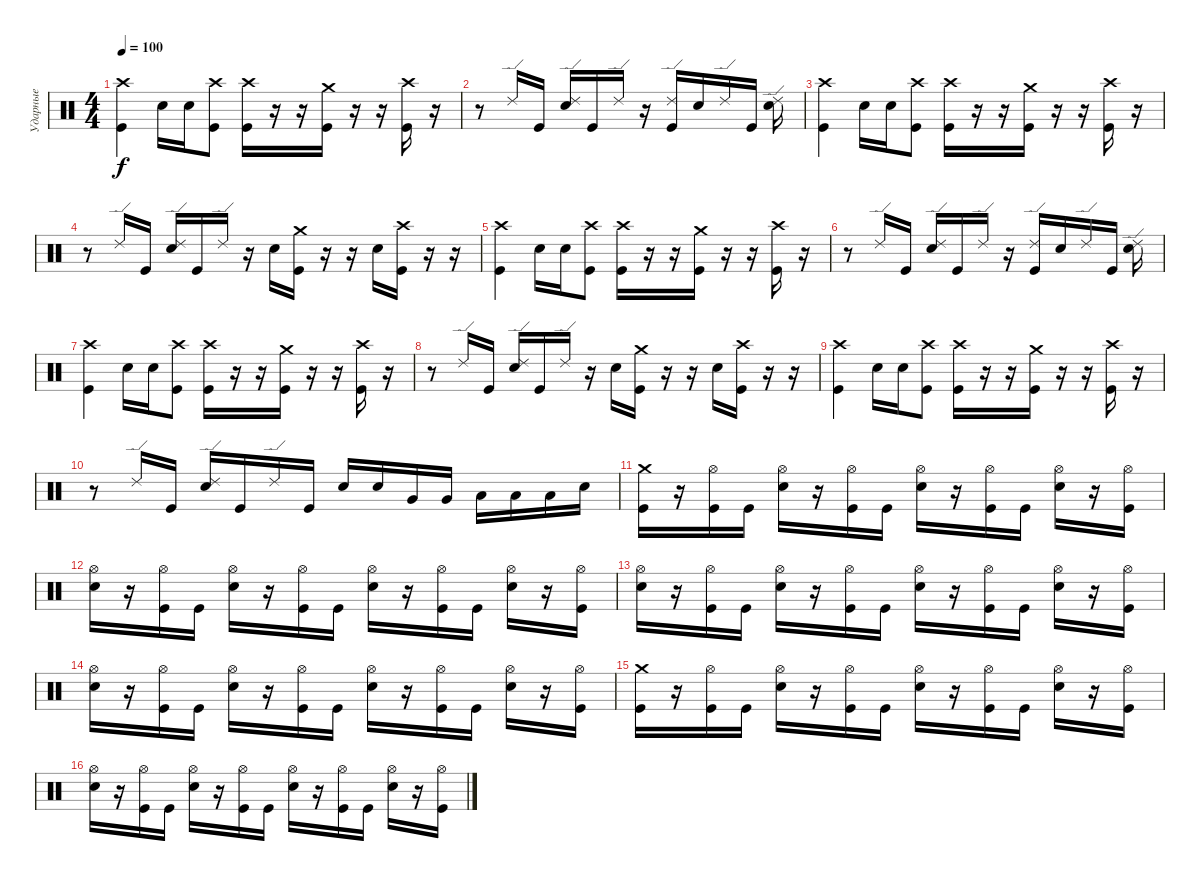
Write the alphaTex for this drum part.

\track ("Ударные" "Ударные") {instrument percussion}
\staff {score}
\articulation defaults
\ts (4 4)
\tempo 100
\clef neutral
\ks c
("Crash high (hit)" "Kick (hit)").4{dy f} "Electric Snare (hit)".16 "Electric Snare (hit)".16 ("Crash high (hit)" "Kick (hit)").8 ("Crash high (hit)" "Kick (hit)").16 r.16 r.16 ("Crash medium (hit)" "Kick (hit)").16 r.16 r.16 ("Crash high (hit)" "Kick (hit)").16 r.16 |
r.8 "Ride (edge) 2".16 "Kick (hit)".16 ("Ride (edge) 2" "Electric Snare (hit)").16 "Kick (hit)".16 "Ride (edge) 2".16 r.16 ("Ride (edge) 2" "Kick (hit)").16 "Electric Snare (hit)".16 "Ride (edge) 2".16 "Kick (hit)".16 ("Ride (edge) 2" "Electric Snare (hit)").16 |
("Crash high (hit)" "Kick (hit)").4 "Electric Snare (hit)".16 "Electric Snare (hit)".16 ("Crash high (hit)" "Kick (hit)").8 ("Crash high (hit)" "Kick (hit)").16 r.16 r.16 ("Crash medium (hit)" "Kick (hit)").16 r.16 r.16 ("Crash high (hit)" "Kick (hit)").16 r.16 |
r.8 "Ride (edge) 2".16 "Kick (hit)".16 ("Ride (edge) 2" "Electric Snare (hit)").16 "Kick (hit)".16 "Ride (edge) 2".16 r.16 "Electric Snare (hit)".16 ("Crash medium (hit)" "Kick (hit)").16 r.16 r.16 "Electric Snare (hit)".16 ("Crash high (hit)" "Kick (hit)").16 r.16 r.16 |
("Crash high (hit)" "Kick (hit)").4 "Electric Snare (hit)".16 "Electric Snare (hit)".16 ("Crash high (hit)" "Kick (hit)").8 ("Crash high (hit)" "Kick (hit)").16 r.16 r.16 ("Crash medium (hit)" "Kick (hit)").16 r.16 r.16 ("Crash high (hit)" "Kick (hit)").16 r.16 |
r.8 "Ride (edge) 2".16 "Kick (hit)".16 ("Ride (edge) 2" "Electric Snare (hit)").16 "Kick (hit)".16 "Ride (edge) 2".16 r.16 ("Ride (edge) 2" "Kick (hit)").16 "Electric Snare (hit)".16 "Ride (edge) 2".16 "Kick (hit)".16 ("Ride (edge) 2" "Electric Snare (hit)").16 |
("Crash high (hit)" "Kick (hit)").4 "Electric Snare (hit)".16 "Electric Snare (hit)".16 ("Crash high (hit)" "Kick (hit)").8 ("Crash high (hit)" "Kick (hit)").16 r.16 r.16 ("Crash medium (hit)" "Kick (hit)").16 r.16 r.16 ("Crash high (hit)" "Kick (hit)").16 r.16 |
r.8 "Ride (edge) 2".16 "Kick (hit)".16 ("Ride (edge) 2" "Electric Snare (hit)").16 "Kick (hit)".16 "Ride (edge) 2".16 r.16 "Electric Snare (hit)".16 ("Crash medium (hit)" "Kick (hit)").16 r.16 r.16 "Electric Snare (hit)".16 ("Crash high (hit)" "Kick (hit)").16 r.16 r.16 |
("Crash high (hit)" "Kick (hit)").4 "Electric Snare (hit)".16 "Electric Snare (hit)".16 ("Crash high (hit)" "Kick (hit)").8 ("Crash high (hit)" "Kick (hit)").16 r.16 r.16 ("Crash medium (hit)" "Kick (hit)").16 r.16 r.16 ("Crash high (hit)" "Kick (hit)").16 r.16 |
r.8 "Ride (edge) 2".16 "Kick (hit)".16 ("Ride (edge) 2" "Electric Snare (hit)").16 "Kick (hit)".16 "Ride (edge) 2".16 "Kick (hit)".16 "Electric Snare (hit)".16 "Electric Snare (hit)".16 "Very Low Tom (hit)".16 "Very Low Tom (hit)".16 "Low Floor Tom (hit)".16 "Low Floor Tom (hit)".16 "Low Floor Tom (hit)".16 "Electric Snare (hit)".16 |
("Crash medium (hit)" "Kick (hit)").16 r.16 ("Hi-Hat (open)" "Kick (hit)").16 "Kick (hit)".16 ("Hi-Hat (open)" "Electric Snare (hit)").16 r.16 ("Hi-Hat (open)" "Kick (hit)").16 "Kick (hit)".16 ("Hi-Hat (open)" "Electric Snare (hit)").16 r.16 ("Hi-Hat (open)" "Kick (hit)").16 "Kick (hit)".16 ("Hi-Hat (open)" "Electric Snare (hit)").16 r.16 ("Hi-Hat (open)" "Kick (hit)").16 |
("Hi-Hat (open)" "Electric Snare (hit)").16 r.16 ("Hi-Hat (open)" "Kick (hit)").16 "Kick (hit)".16 ("Hi-Hat (open)" "Electric Snare (hit)").16 r.16 ("Hi-Hat (open)" "Kick (hit)").16 "Kick (hit)".16 ("Hi-Hat (open)" "Electric Snare (hit)").16 r.16 ("Hi-Hat (open)" "Kick (hit)").16 "Kick (hit)".16 ("Hi-Hat (open)" "Electric Snare (hit)").16 r.16 ("Hi-Hat (open)" "Kick (hit)").16 |
("Hi-Hat (open)" "Electric Snare (hit)").16 r.16 ("Hi-Hat (open)" "Kick (hit)").16 "Kick (hit)".16 ("Hi-Hat (open)" "Electric Snare (hit)").16 r.16 ("Hi-Hat (open)" "Kick (hit)").16 "Kick (hit)".16 ("Hi-Hat (open)" "Electric Snare (hit)").16 r.16 ("Hi-Hat (open)" "Kick (hit)").16 "Kick (hit)".16 ("Hi-Hat (open)" "Electric Snare (hit)").16 r.16 ("Hi-Hat (open)" "Kick (hit)").16 |
("Hi-Hat (open)" "Electric Snare (hit)").16 r.16 ("Hi-Hat (open)" "Kick (hit)").16 "Kick (hit)".16 ("Hi-Hat (open)" "Electric Snare (hit)").16 r.16 ("Hi-Hat (open)" "Kick (hit)").16 "Kick (hit)".16 ("Hi-Hat (open)" "Electric Snare (hit)").16 r.16 ("Hi-Hat (open)" "Kick (hit)").16 "Kick (hit)".16 ("Hi-Hat (open)" "Electric Snare (hit)").16 r.16 ("Hi-Hat (open)" "Kick (hit)").16 |
("Crash medium (hit)" "Kick (hit)").16 r.16 ("Hi-Hat (open)" "Kick (hit)").16 "Kick (hit)".16 ("Hi-Hat (open)" "Electric Snare (hit)").16 r.16 ("Hi-Hat (open)" "Kick (hit)").16 "Kick (hit)".16 ("Hi-Hat (open)" "Electric Snare (hit)").16 r.16 ("Hi-Hat (open)" "Kick (hit)").16 "Kick (hit)".16 ("Hi-Hat (open)" "Electric Snare (hit)").16 r.16 ("Hi-Hat (open)" "Kick (hit)").16 |
("Hi-Hat (open)" "Electric Snare (hit)").16 r.16 ("Hi-Hat (open)" "Kick (hit)").16 "Kick (hit)".16 ("Hi-Hat (open)" "Electric Snare (hit)").16 r.16 ("Hi-Hat (open)" "Kick (hit)").16 "Kick (hit)".16 ("Hi-Hat (open)" "Electric Snare (hit)").16 r.16 ("Hi-Hat (open)" "Kick (hit)").16 "Kick (hit)".16 ("Hi-Hat (open)" "Electric Snare (hit)").16 r.16 ("Hi-Hat (open)" "Kick (hit)").16
